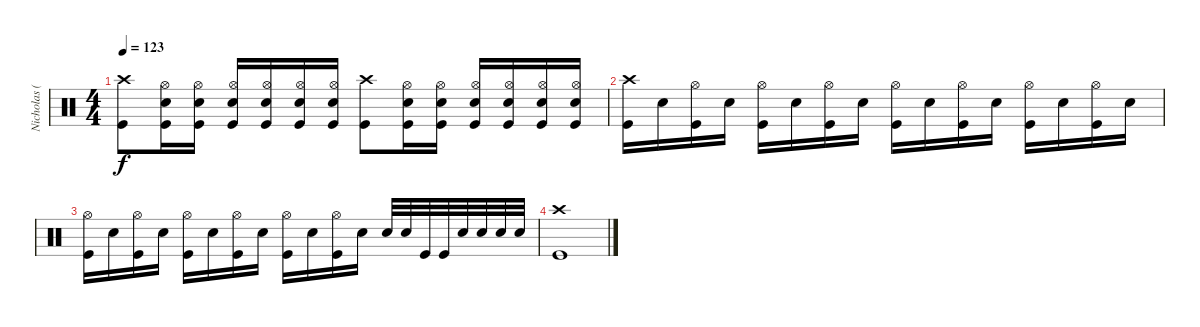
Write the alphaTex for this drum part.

\track ("Nicholas (Drums)" "Nicholas (") {instrument percussion}
\staff {score}
\articulation defaults
\ts (4 4)
\tempo 123
\clef neutral
\ks c
("Crash high (hit)" "Kick (hit)").8{dy f} ("Hi-Hat (open)" "Electric Snare (hit)" "Kick (hit)").16 ("Hi-Hat (open)" "Electric Snare (hit)" "Kick (hit)").16 ("Hi-Hat (open)" "Electric Snare (hit)" "Kick (hit)").16 ("Hi-Hat (open)" "Electric Snare (hit)" "Kick (hit)").16 ("Hi-Hat (open)" "Electric Snare (hit)" "Kick (hit)").16 ("Hi-Hat (open)" "Electric Snare (hit)" "Kick (hit)").16 ("Crash high (hit)" "Kick (hit)").8 ("Hi-Hat (open)" "Electric Snare (hit)" "Kick (hit)").16 ("Hi-Hat (open)" "Electric Snare (hit)" "Kick (hit)").16 ("Hi-Hat (open)" "Electric Snare (hit)" "Kick (hit)").16 ("Hi-Hat (open)" "Electric Snare (hit)" "Kick (hit)").16 ("Hi-Hat (open)" "Electric Snare (hit)" "Kick (hit)").16 ("Hi-Hat (open)" "Electric Snare (hit)" "Kick (hit)").16 |
("Crash high (hit)" "Kick (hit)").16 "Electric Snare (hit)".16 ("Hi-Hat (open)" "Kick (hit)").16 "Electric Snare (hit)".16 ("Hi-Hat (open)" "Kick (hit)").16 "Electric Snare (hit)".16 ("Hi-Hat (open)" "Kick (hit)").16 "Electric Snare (hit)".16 ("Hi-Hat (open)" "Kick (hit)").16 "Electric Snare (hit)".16 ("Hi-Hat (open)" "Kick (hit)").16 "Electric Snare (hit)".16 ("Hi-Hat (open)" "Kick (hit)").16 "Electric Snare (hit)".16 ("Hi-Hat (open)" "Kick (hit)").16 "Electric Snare (hit)".16 |
("Hi-Hat (open)" "Kick (hit)").16 "Electric Snare (hit)".16 ("Hi-Hat (open)" "Kick (hit)").16 "Electric Snare (hit)".16 ("Hi-Hat (open)" "Kick (hit)").16 "Electric Snare (hit)".16 ("Hi-Hat (open)" "Kick (hit)").16 "Electric Snare (hit)".16 ("Hi-Hat (open)" "Kick (hit)").16 "Electric Snare (hit)".16 ("Hi-Hat (open)" "Kick (hit)").16 "Electric Snare (hit)".16 "Electric Snare (hit)".32 "Electric Snare (hit)".32 "Kick (hit)".32 "Kick (hit)".32 "Electric Snare (hit)".32 "Electric Snare (hit)".32 "Electric Snare (hit)".32 "Electric Snare (hit)".32 |
("Crash high (hit)" "Kick (hit)").1
